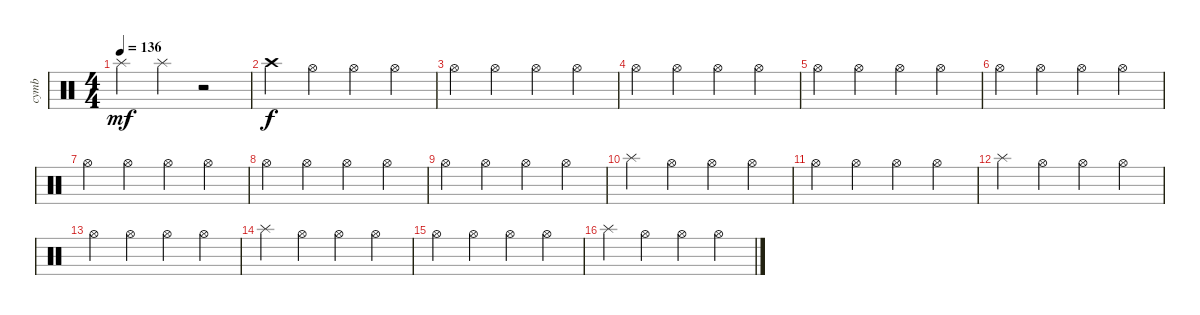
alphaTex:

\track ("cymb" "cymb") {instrument percussion}
\staff {score}
\articulation defaults
\ts (4 4)
\tempo 136
\clef neutral
\ks c "Splash (hit)".4{dy mf} "Splash (hit)".4
r.2 |
"Crash high (hit)".4{dy f} "Hi-Hat (open)".4 "Hi-Hat (open)".4 "Hi-Hat (open)".4 |
"Hi-Hat (open)".4 "Hi-Hat (open)".4 "Hi-Hat (open)".4 "Hi-Hat (open)".4 |
"Hi-Hat (open)".4 "Hi-Hat (open)".4 "Hi-Hat (open)".4 "Hi-Hat (open)".4 |
"Hi-Hat (open)".4 "Hi-Hat (open)".4 "Hi-Hat (open)".4 "Hi-Hat (open)".4 |
"Hi-Hat (open)".4 "Hi-Hat (open)".4 "Hi-Hat (open)".4 "Hi-Hat (open)".4 |
"Hi-Hat (open)".4 "Hi-Hat (open)".4 "Hi-Hat (open)".4 "Hi-Hat (open)".4 |
"Hi-Hat (open)".4 "Hi-Hat (open)".4 "Hi-Hat (open)".4 "Hi-Hat (open)".4 |
"Hi-Hat (open)".4 "Hi-Hat (open)".4 "Hi-Hat (open)".4 "Hi-Hat (open)".4 |
"Splash (hit)".4 "Hi-Hat (open)".4 "Hi-Hat (open)".4 "Hi-Hat (open)".4 |
"Hi-Hat (open)".4 "Hi-Hat (open)".4 "Hi-Hat (open)".4 "Hi-Hat (open)".4 |
"Splash (hit)".4 "Hi-Hat (open)".4 "Hi-Hat (open)".4 "Hi-Hat (open)".4 |
"Hi-Hat (open)".4 "Hi-Hat (open)".4 "Hi-Hat (open)".4 "Hi-Hat (open)".4 |
"Splash (hit)".4 "Hi-Hat (open)".4 "Hi-Hat (open)".4 "Hi-Hat (open)".4 |
"Hi-Hat (open)".4 "Hi-Hat (open)".4 "Hi-Hat (open)".4 "Hi-Hat (open)".4 |
"Splash (hit)".4 "Hi-Hat (open)".4 "Hi-Hat (open)".4 "Hi-Hat (open)".4
